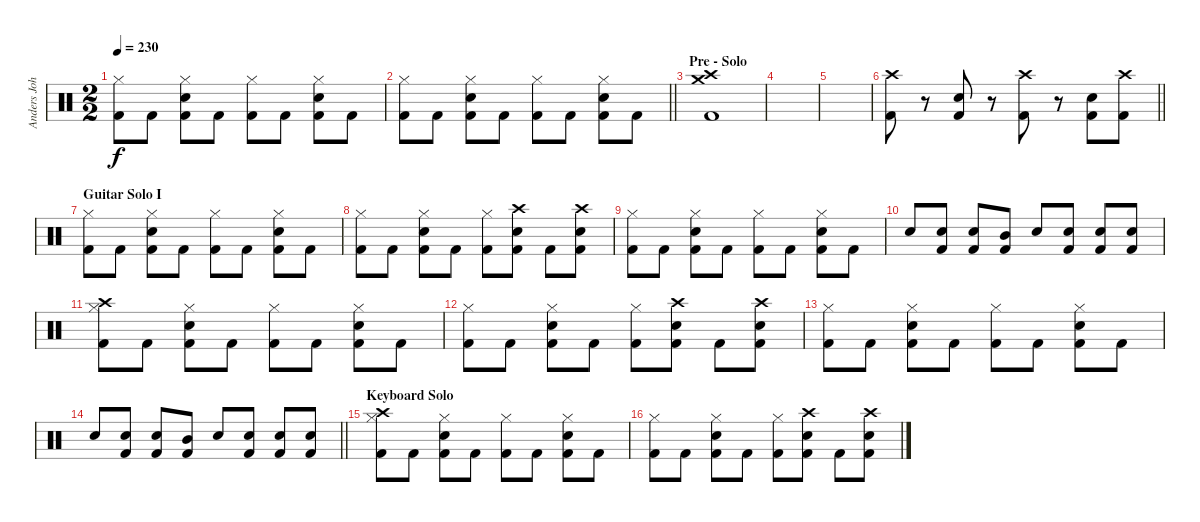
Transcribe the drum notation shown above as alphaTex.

\track ("Anders Johansson" "Anders Joh") {instrument percussion}
\staff {score}
\articulation defaults
\ts (2 2)
\tempo 230
\clef neutral
\ks c
("Hi-Hat (closed)" "Kick (hit) 2").8{dy f} "Kick (hit) 2".8 ("Electric Snare (hit)" "Hi-Hat (closed)" "Kick (hit) 2").8 "Kick (hit) 2".8 ("Hi-Hat (closed)" "Kick (hit) 2").8 "Kick (hit) 2".8 ("Electric Snare (hit)" "Hi-Hat (closed)" "Kick (hit) 2").8 "Kick (hit) 2".8 |
\barLineRight lightlight
("Hi-Hat (closed)" "Kick (hit) 2").8 "Kick (hit) 2".8 ("Electric Snare (hit)" "Hi-Hat (closed)" "Kick (hit) 2").8 "Kick (hit) 2".8 ("Hi-Hat (closed)" "Kick (hit) 2").8 "Kick (hit) 2".8 ("Electric Snare (hit)" "Hi-Hat (closed)" "Kick (hit) 2").8 "Kick (hit) 2".8 |
\section ("" "Pre - Solo")
("Crash medium (hit)" "Crash high (hit)" "Kick (hit) 2").1 |
|
|
\barLineRight lightlight
("Crash high (hit)" "Kick (hit) 2").8 r.8 ("Electric Snare (hit)" "Kick (hit) 2").8 r.8 ("Crash high (hit)" "Kick (hit) 2").8 r.8 ("Electric Snare (hit)" "Kick (hit) 2").8 ("Crash high (hit)" "Kick (hit) 2").8 |
\section ("" "Guitar Solo I")
("Hi-Hat (closed)" "Kick (hit) 2").8 "Kick (hit) 2".8 ("Electric Snare (hit)" "Hi-Hat (closed)" "Kick (hit) 2").8 "Kick (hit) 2".8 ("Hi-Hat (closed)" "Kick (hit) 2").8 "Kick (hit) 2".8 ("Electric Snare (hit)" "Hi-Hat (closed)" "Kick (hit) 2").8 "Kick (hit) 2".8 |
("Hi-Hat (closed)" "Kick (hit) 2").8 "Kick (hit) 2".8 ("Electric Snare (hit)" "Hi-Hat (closed)" "Kick (hit) 2").8 "Kick (hit) 2".8 ("Hi-Hat (closed)" "Kick (hit) 2").8 ("Crash high (hit)" "Electric Snare (hit)" "Kick (hit) 2").8 "Kick (hit) 2".8 ("Crash high (hit)" "Electric Snare (hit)" "Kick (hit) 2").8 |
("Hi-Hat (closed)" "Kick (hit) 2").8 "Kick (hit) 2".8 ("Electric Snare (hit)" "Hi-Hat (closed)" "Kick (hit) 2").8 "Kick (hit) 2".8 ("Hi-Hat (closed)" "Kick (hit) 2").8 "Kick (hit) 2".8 ("Electric Snare (hit)" "Hi-Hat (closed)" "Kick (hit) 2").8 "Kick (hit) 2".8 |
"Electric Snare (hit)".8 ("Electric Snare (hit)" "Kick (hit) 2").8 ("Electric Snare (hit)" "Kick (hit) 2").8 ("Mid Tom (hit)" "Kick (hit) 2").8 "Electric Snare (hit)".8 ("Electric Snare (hit)" "Kick (hit) 2").8 ("Electric Snare (hit)" "Kick (hit) 2").8 ("Electric Snare (hit)" "Kick (hit) 2").8 |
("Crash high (hit)" "Hi-Hat (closed)" "Kick (hit) 2").8 "Kick (hit) 2".8 ("Electric Snare (hit)" "Hi-Hat (closed)" "Kick (hit) 2").8 "Kick (hit) 2".8 ("Hi-Hat (closed)" "Kick (hit) 2").8 "Kick (hit) 2".8 ("Electric Snare (hit)" "Hi-Hat (closed)" "Kick (hit) 2").8 "Kick (hit) 2".8 |
("Hi-Hat (closed)" "Kick (hit) 2").8 "Kick (hit) 2".8 ("Electric Snare (hit)" "Hi-Hat (closed)" "Kick (hit) 2").8 "Kick (hit) 2".8 ("Hi-Hat (closed)" "Kick (hit) 2").8 ("Crash high (hit)" "Electric Snare (hit)" "Kick (hit) 2").8 "Kick (hit) 2".8 ("Crash high (hit)" "Electric Snare (hit)" "Kick (hit) 2").8 |
("Hi-Hat (closed)" "Kick (hit) 2").8 "Kick (hit) 2".8 ("Electric Snare (hit)" "Hi-Hat (closed)" "Kick (hit) 2").8 "Kick (hit) 2".8 ("Hi-Hat (closed)" "Kick (hit) 2").8 "Kick (hit) 2".8 ("Electric Snare (hit)" "Hi-Hat (closed)" "Kick (hit) 2").8 "Kick (hit) 2".8 |
\barLineRight lightlight "Electric Snare (hit)".8
("Electric Snare (hit)" "Kick (hit) 2").8 ("Electric Snare (hit)" "Kick (hit) 2").8 ("Mid Tom (hit)" "Kick (hit) 2").8 "Electric Snare (hit)".8 ("Electric Snare (hit)" "Kick (hit) 2").8 ("Electric Snare (hit)" "Kick (hit) 2").8 ("Electric Snare (hit)" "Kick (hit) 2").8 |
\section ("" "Keyboard Solo")
("Crash high (hit)" "Hi-Hat (closed)" "Kick (hit) 2").8 "Kick (hit) 2".8 ("Electric Snare (hit)" "Hi-Hat (closed)" "Kick (hit) 2").8 "Kick (hit) 2".8 ("Hi-Hat (closed)" "Kick (hit) 2").8 "Kick (hit) 2".8 ("Electric Snare (hit)" "Hi-Hat (closed)" "Kick (hit) 2").8 "Kick (hit) 2".8 |
("Hi-Hat (closed)" "Kick (hit) 2").8 "Kick (hit) 2".8 ("Electric Snare (hit)" "Hi-Hat (closed)" "Kick (hit) 2").8 "Kick (hit) 2".8 ("Hi-Hat (closed)" "Kick (hit) 2").8 ("Crash high (hit)" "Electric Snare (hit)" "Kick (hit) 2").8 "Kick (hit) 2".8 ("Crash high (hit)" "Electric Snare (hit)" "Kick (hit) 2").8
